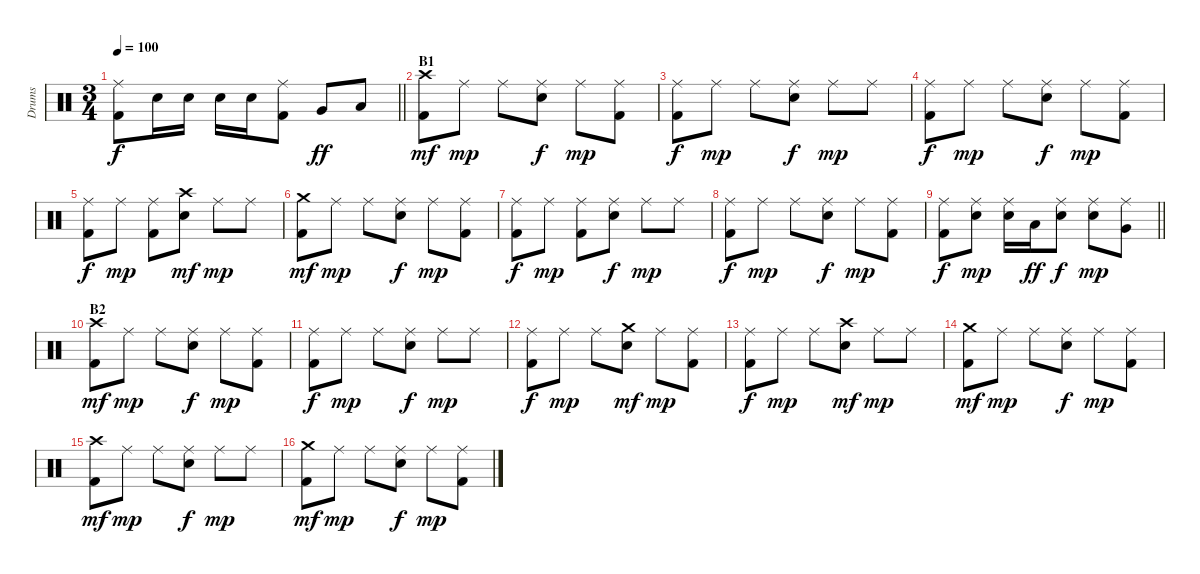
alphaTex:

\track ("Drums" "Drums") {instrument percussion}
\staff {score}
\articulation defaults
\ts (3 4)
\tempo 100
\clef neutral
\barLineRight lightlight
\ks c
("Kick (hit) 2" "Ride (middle)").8{dy f} "Electric Snare (hit)".16 "Electric Snare (hit)".16 "Electric Snare (hit)".16 "Electric Snare (hit)".16 ("Kick (hit) 2" "Ride (middle)").8 "Very Low Tom (hit)".8{dy ff} "Low Floor Tom (hit)".8 |
\section ("" "B1")
("Crash high (hit)" "Kick (hit) 2").8{dy mf} "Ride (middle)".8{dy mp} "Ride (middle)".8 ("Ride (middle)" "Electric Snare (hit)").8{dy f} "Ride (middle)".8{dy mp} ("Ride (middle)" "Kick (hit) 2").8 |
("Ride (middle)" "Kick (hit) 2").8{dy f} "Ride (middle)".8{dy mp} "Ride (middle)".8 ("Ride (middle)" "Electric Snare (hit)").8{dy f} "Ride (middle)".8{dy mp} "Ride (middle)".8 |
("Ride (middle)" "Kick (hit) 2").8{dy f} "Ride (middle)".8{dy mp} "Ride (middle)".8 ("Ride (middle)" "Electric Snare (hit)").8{dy f} "Ride (middle)".8{dy mp} ("Ride (middle)" "Kick (hit) 2").8 |
("Ride (middle)" "Kick (hit) 2").8{dy f} "Ride (middle)".8{dy mp} ("Ride (middle)" "Kick (hit) 2").8 ("Crash high (hit)" "Electric Snare (hit)").8{dy mf} "Ride (middle)".8{dy mp} "Ride (middle)".8 |
("Crash medium (hit)" "Kick (hit) 2").8{dy mf} "Ride (middle)".8{dy mp} "Ride (middle)".8 ("Ride (middle)" "Electric Snare (hit)").8{dy f} "Ride (middle)".8{dy mp} ("Ride (middle)" "Kick (hit) 2").8 |
("Ride (middle)" "Kick (hit) 2").8{dy f} "Ride (middle)".8{dy mp} ("Ride (middle)" "Kick (hit) 2").8 ("Ride (middle)" "Electric Snare (hit)").8{dy f} "Ride (middle)".8{dy mp} "Ride (middle)".8 |
("Ride (middle)" "Kick (hit) 2").8{dy f} "Ride (middle)".8{dy mp} "Ride (middle)".8 ("Ride (middle)" "Electric Snare (hit)").8{dy f} "Ride (middle)".8{dy mp} ("Ride (middle)" "Kick (hit) 2").8 |
\barLineRight lightlight
("Ride (middle)" "Kick (hit) 2").8{dy f} ("Ride (middle)" "Electric Snare (hit)").8{dy mp} ("Ride (middle)" "Electric Snare (hit)").16 "Low Tom (hit)".16{dy ff} ("Ride (middle)" "Electric Snare (hit)").8{dy f} ("Ride (middle)" "Electric Snare (hit)").8{dy mp} ("Ride (middle)" "Very Low Tom (hit)").8 |
\section ("" "B2")
("Crash high (hit)" "Kick (hit) 2").8{dy mf} "Ride (middle)".8{dy mp} "Ride (middle)".8 ("Ride (middle)" "Electric Snare (hit)").8{dy f} "Ride (middle)".8{dy mp} ("Ride (middle)" "Kick (hit) 2").8 |
("Ride (middle)" "Kick (hit) 2").8{dy f} "Ride (middle)".8{dy mp} "Ride (middle)".8 ("Ride (middle)" "Electric Snare (hit)").8{dy f} "Ride (middle)".8{dy mp} "Ride (middle)".8 |
("Ride (middle)" "Kick (hit) 2").8{dy f} "Ride (middle)".8{dy mp} "Ride (middle)".8 ("Crash medium (hit)" "Electric Snare (hit)").8{dy mf} "Ride (middle)".8{dy mp} ("Ride (middle)" "Kick (hit) 2").8 |
("Ride (middle)" "Kick (hit) 2").8{dy f} "Ride (middle)".8{dy mp} "Ride (middle)".8 ("Crash high (hit)" "Electric Snare (hit)").8{dy mf} "Ride (middle)".8{dy mp} "Ride (middle)".8 |
("Crash medium (hit)" "Kick (hit) 2").8{dy mf} "Ride (middle)".8{dy mp} "Ride (middle)".8 ("Ride (middle)" "Electric Snare (hit)").8{dy f} "Ride (middle)".8{dy mp} ("Ride (middle)" "Kick (hit) 2").8 |
("Crash high (hit)" "Kick (hit) 2").8{dy mf} "Ride (middle)".8{dy mp} "Ride (middle)".8 ("Ride (middle)" "Electric Snare (hit)").8{dy f} "Ride (middle)".8{dy mp} "Ride (middle)".8 |
("Crash medium (hit)" "Kick (hit) 2").8{dy mf} "Ride (middle)".8{dy mp} "Ride (middle)".8 ("Ride (middle)" "Electric Snare (hit)").8{dy f} "Ride (middle)".8{dy mp} ("Ride (middle)" "Kick (hit) 2").8
